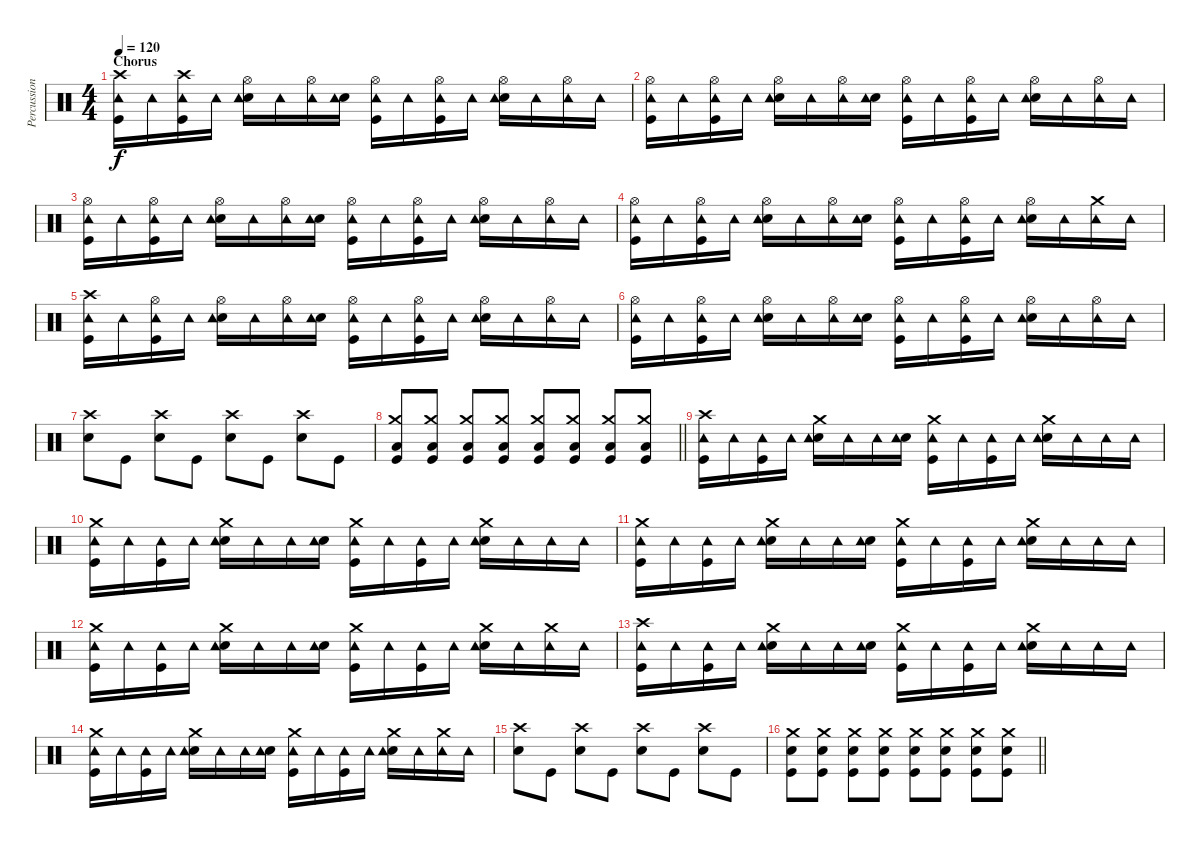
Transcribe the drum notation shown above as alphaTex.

\track ("Percussion" "Percussion") {instrument percussion}
\staff {score}
\articulation defaults
\ts (4 4)
\section ("" "Chorus")
\tempo 120
\clef neutral
\ks c
("Crash high (hit)" "Tambourine (hit)" "Kick (hit)").16{dy f} "Tambourine (hit)".16 ("Crash high (hit)" "Tambourine (hit)" "Kick (hit)").16 "Tambourine (hit)".16 ("Hi-Hat (open)" "Electric Snare (hit)" "Tambourine (hit)").16 "Tambourine (hit)".16 ("Hi-Hat (open)" "Tambourine (hit)").16 ("Electric Snare (hit)" "Tambourine (hit)").16 ("Hi-Hat (open)" "Tambourine (hit)" "Kick (hit)").16 "Tambourine (hit)".16 ("Hi-Hat (open)" "Tambourine (hit)" "Kick (hit)").16 "Tambourine (hit)".16 ("Hi-Hat (open)" "Electric Snare (hit)" "Tambourine (hit)").16 "Tambourine (hit)".16 ("Hi-Hat (open)" "Tambourine (hit)").16 "Tambourine (hit)".16 |
("Hi-Hat (open)" "Tambourine (hit)" "Kick (hit)").16 "Tambourine (hit)".16 ("Hi-Hat (open)" "Tambourine (hit)" "Kick (hit)").16 "Tambourine (hit)".16 ("Hi-Hat (open)" "Electric Snare (hit)" "Tambourine (hit)").16 "Tambourine (hit)".16 ("Hi-Hat (open)" "Tambourine (hit)").16 ("Electric Snare (hit)" "Tambourine (hit)").16 ("Hi-Hat (open)" "Tambourine (hit)" "Kick (hit)").16 "Tambourine (hit)".16 ("Hi-Hat (open)" "Tambourine (hit)" "Kick (hit)").16 "Tambourine (hit)".16 ("Hi-Hat (open)" "Electric Snare (hit)" "Tambourine (hit)").16 "Tambourine (hit)".16 ("Hi-Hat (open)" "Tambourine (hit)").16 "Tambourine (hit)".16 |
("Hi-Hat (open)" "Tambourine (hit)" "Kick (hit)").16 "Tambourine (hit)".16 ("Hi-Hat (open)" "Tambourine (hit)" "Kick (hit)").16 "Tambourine (hit)".16 ("Hi-Hat (open)" "Electric Snare (hit)" "Tambourine (hit)").16 "Tambourine (hit)".16 ("Hi-Hat (open)" "Tambourine (hit)").16 ("Electric Snare (hit)" "Tambourine (hit)").16 ("Hi-Hat (open)" "Tambourine (hit)" "Kick (hit)").16 "Tambourine (hit)".16 ("Hi-Hat (open)" "Tambourine (hit)" "Kick (hit)").16 "Tambourine (hit)".16 ("Hi-Hat (open)" "Electric Snare (hit)" "Tambourine (hit)").16 "Tambourine (hit)".16 ("Hi-Hat (open)" "Tambourine (hit)").16 "Tambourine (hit)".16 |
("Hi-Hat (open)" "Tambourine (hit)" "Kick (hit)").16 "Tambourine (hit)".16 ("Hi-Hat (open)" "Tambourine (hit)" "Kick (hit)").16 "Tambourine (hit)".16 ("Hi-Hat (open)" "Electric Snare (hit)" "Tambourine (hit)").16 "Tambourine (hit)".16 ("Hi-Hat (open)" "Tambourine (hit)").16 ("Electric Snare (hit)" "Tambourine (hit)").16 ("Hi-Hat (open)" "Tambourine (hit)" "Kick (hit)").16 "Tambourine (hit)".16 ("Hi-Hat (open)" "Tambourine (hit)" "Kick (hit)").16 "Tambourine (hit)".16 ("Hi-Hat (open)" "Electric Snare (hit)" "Tambourine (hit)").16 "Tambourine (hit)".16 ("Crash medium (hit)" "Tambourine (hit)").16 "Tambourine (hit)".16 |
("Crash high (hit)" "Tambourine (hit)" "Kick (hit)").16 "Tambourine (hit)".16 ("Hi-Hat (open)" "Tambourine (hit)" "Kick (hit)").16 "Tambourine (hit)".16 ("Hi-Hat (open)" "Electric Snare (hit)" "Tambourine (hit)").16 "Tambourine (hit)".16 ("Hi-Hat (open)" "Tambourine (hit)").16 ("Electric Snare (hit)" "Tambourine (hit)").16 ("Hi-Hat (open)" "Tambourine (hit)" "Kick (hit)").16 "Tambourine (hit)".16 ("Hi-Hat (open)" "Tambourine (hit)" "Kick (hit)").16 "Tambourine (hit)".16 ("Hi-Hat (open)" "Electric Snare (hit)" "Tambourine (hit)").16 "Tambourine (hit)".16 ("Hi-Hat (open)" "Tambourine (hit)").16 "Tambourine (hit)".16 |
("Hi-Hat (open)" "Tambourine (hit)" "Kick (hit)").16 "Tambourine (hit)".16 ("Hi-Hat (open)" "Tambourine (hit)" "Kick (hit)").16 "Tambourine (hit)".16 ("Hi-Hat (open)" "Electric Snare (hit)" "Tambourine (hit)").16 "Tambourine (hit)".16 ("Hi-Hat (open)" "Tambourine (hit)").16 ("Electric Snare (hit)" "Tambourine (hit)").16 ("Hi-Hat (open)" "Tambourine (hit)" "Kick (hit)").16 "Tambourine (hit)".16 ("Hi-Hat (open)" "Tambourine (hit)" "Kick (hit)").16 "Tambourine (hit)".16 ("Hi-Hat (open)" "Electric Snare (hit)" "Tambourine (hit)").16 "Tambourine (hit)".16 ("Hi-Hat (open)" "Tambourine (hit)").16 "Tambourine (hit)".16 |
("Crash high (hit)" "Electric Snare (hit)").8 "Kick (hit)".8 ("Crash high (hit)" "Electric Snare (hit)").8 "Kick (hit)".8 ("Crash high (hit)" "Electric Snare (hit)").8 "Kick (hit)".8 ("Crash high (hit)" "Electric Snare (hit)").8 "Kick (hit)".8 |
\barLineRight lightlight
("Crash medium (hit)" "Low Floor Tom (hit)" "Kick (hit)").8{volume 3} ("Crash medium (hit)" "Low Floor Tom (hit)" "Kick (hit)").8{volume 8} ("Crash medium (hit)" "Low Floor Tom (hit)" "Kick (hit)").8 ("Crash medium (hit)" "Low Floor Tom (hit)" "Kick (hit)").8 ("Crash medium (hit)" "Low Floor Tom (hit)" "Kick (hit)").8 ("Crash medium (hit)" "Low Floor Tom (hit)" "Kick (hit)").8 ("Crash medium (hit)" "Low Floor Tom (hit)" "Kick (hit)").8 ("Crash medium (hit)" "Low Floor Tom (hit)" "Kick (hit)").8 |
("Crash high (hit)" "Tambourine (hit)" "Kick (hit)").16 "Tambourine (hit)".16 ("Tambourine (hit)" "Kick (hit)").16 "Tambourine (hit)".16 ("Crash medium (hit)" "Electric Snare (hit)" "Tambourine (hit)").16 "Tambourine (hit)".16 "Tambourine (hit)".16 ("Electric Snare (hit)" "Tambourine (hit)").16 ("Crash medium (hit)" "Tambourine (hit)" "Kick (hit)").16 "Tambourine (hit)".16 ("Tambourine (hit)" "Kick (hit)").16 "Tambourine (hit)".16 ("Crash medium (hit)" "Electric Snare (hit)" "Tambourine (hit)").16 "Tambourine (hit)".16 "Tambourine (hit)".16 "Tambourine (hit)".16 |
("Crash medium (hit)" "Tambourine (hit)" "Kick (hit)").16 "Tambourine (hit)".16 ("Tambourine (hit)" "Kick (hit)").16 "Tambourine (hit)".16 ("Crash medium (hit)" "Electric Snare (hit)" "Tambourine (hit)").16 "Tambourine (hit)".16 "Tambourine (hit)".16 ("Electric Snare (hit)" "Tambourine (hit)").16 ("Crash medium (hit)" "Tambourine (hit)" "Kick (hit)").16 "Tambourine (hit)".16 ("Tambourine (hit)" "Kick (hit)").16 "Tambourine (hit)".16 ("Crash medium (hit)" "Electric Snare (hit)" "Tambourine (hit)").16 "Tambourine (hit)".16 "Tambourine (hit)".16 "Tambourine (hit)".16 |
("Crash medium (hit)" "Tambourine (hit)" "Kick (hit)").16 "Tambourine (hit)".16 ("Tambourine (hit)" "Kick (hit)").16 "Tambourine (hit)".16 ("Crash medium (hit)" "Electric Snare (hit)" "Tambourine (hit)").16 "Tambourine (hit)".16 "Tambourine (hit)".16 ("Electric Snare (hit)" "Tambourine (hit)").16 ("Crash medium (hit)" "Tambourine (hit)" "Kick (hit)").16 "Tambourine (hit)".16 ("Tambourine (hit)" "Kick (hit)").16 "Tambourine (hit)".16 ("Crash medium (hit)" "Electric Snare (hit)" "Tambourine (hit)").16 "Tambourine (hit)".16 "Tambourine (hit)".16 "Tambourine (hit)".16 |
("Crash medium (hit)" "Tambourine (hit)" "Kick (hit)").16 "Tambourine (hit)".16 ("Tambourine (hit)" "Kick (hit)").16 "Tambourine (hit)".16 ("Crash medium (hit)" "Electric Snare (hit)" "Tambourine (hit)").16 "Tambourine (hit)".16 "Tambourine (hit)".16 ("Electric Snare (hit)" "Tambourine (hit)").16 ("Crash medium (hit)" "Tambourine (hit)" "Kick (hit)").16 "Tambourine (hit)".16 ("Tambourine (hit)" "Kick (hit)").16 "Tambourine (hit)".16 ("Crash medium (hit)" "Electric Snare (hit)" "Tambourine (hit)").16 "Tambourine (hit)".16 ("Crash medium (hit)" "Tambourine (hit)").16 "Tambourine (hit)".16 |
("Crash high (hit)" "Tambourine (hit)" "Kick (hit)").16 "Tambourine (hit)".16 ("Tambourine (hit)" "Kick (hit)").16 "Tambourine (hit)".16 ("Crash medium (hit)" "Electric Snare (hit)" "Tambourine (hit)").16 "Tambourine (hit)".16 "Tambourine (hit)".16 ("Electric Snare (hit)" "Tambourine (hit)").16 ("Crash medium (hit)" "Tambourine (hit)" "Kick (hit)").16 "Tambourine (hit)".16 ("Tambourine (hit)" "Kick (hit)").16 "Tambourine (hit)".16 ("Crash medium (hit)" "Electric Snare (hit)" "Tambourine (hit)").16 "Tambourine (hit)".16 "Tambourine (hit)".16 "Tambourine (hit)".16 |
("Crash medium (hit)" "Tambourine (hit)" "Kick (hit)").16 "Tambourine (hit)".16 ("Tambourine (hit)" "Kick (hit)").16 "Tambourine (hit)".16 ("Crash medium (hit)" "Electric Snare (hit)" "Tambourine (hit)").16 "Tambourine (hit)".16 "Tambourine (hit)".16 ("Electric Snare (hit)" "Tambourine (hit)").16 ("Crash medium (hit)" "Tambourine (hit)" "Kick (hit)").16 "Tambourine (hit)".16 ("Tambourine (hit)" "Kick (hit)").16 "Tambourine (hit)".16 ("Crash medium (hit)" "Electric Snare (hit)" "Tambourine (hit)").16 "Tambourine (hit)".16 ("Crash medium (hit)" "Tambourine (hit)").16 "Tambourine (hit)".16 |
("Crash high (hit)" "Electric Snare (hit)").8 "Kick (hit)".8 ("Crash high (hit)" "Electric Snare (hit)").8 "Kick (hit)".8 ("Crash high (hit)" "Electric Snare (hit)").8 "Kick (hit)".8 ("Crash high (hit)" "Electric Snare (hit)").8 "Kick (hit)".8 |
\barLineRight lightlight
("Crash medium (hit)" "Electric Snare (hit)" "Kick (hit)").8{volume 3} ("Crash medium (hit)" "Electric Snare (hit)" "Kick (hit)").8{volume 8} ("Crash medium (hit)" "Electric Snare (hit)" "Kick (hit)").8 ("Crash medium (hit)" "Electric Snare (hit)" "Kick (hit)").8 ("Crash medium (hit)" "Electric Snare (hit)" "Kick (hit)").8 ("Crash medium (hit)" "Electric Snare (hit)" "Kick (hit)").8 ("Crash medium (hit)" "Electric Snare (hit)" "Kick (hit)").8 ("Crash medium (hit)" "Electric Snare (hit)" "Kick (hit)").8
